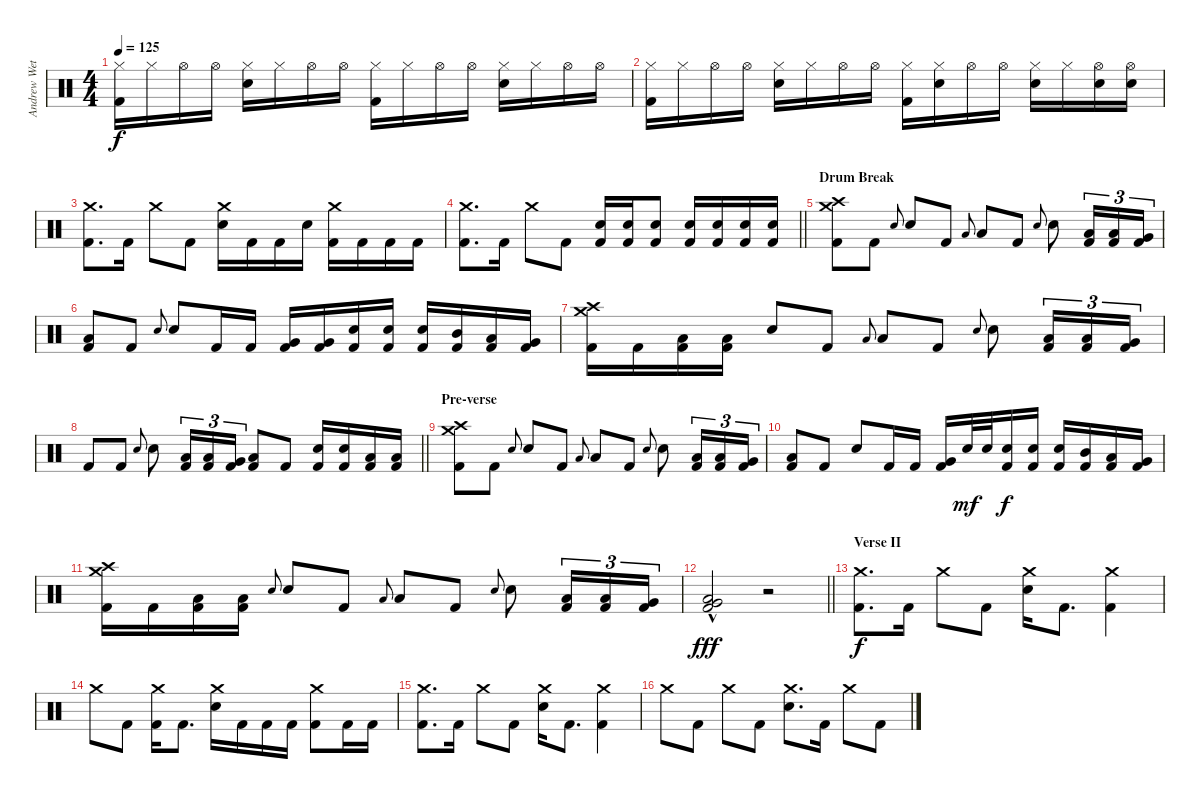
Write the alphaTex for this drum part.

\track ("Andrew Wetzel" "Andrew Wet") {instrument percussion}
\staff {score}
\articulation defaults
\ts (4 4)
\tempo 125
\clef neutral
\ks c
("Hi-Hat (closed)" "Kick (hit) 2").16{dy f} "Hi-Hat (closed)".16 "Hi-Hat (open)".16 "Hi-Hat (open)".16 ("Hi-Hat (closed)" "Snare (hit) 2").16 "Hi-Hat (closed)".16 "Hi-Hat (open)".16 "Hi-Hat (open)".16 ("Hi-Hat (closed)" "Kick (hit) 2").16 "Hi-Hat (closed)".16 "Hi-Hat (open)".16 "Hi-Hat (open)".16 ("Hi-Hat (closed)" "Snare (hit) 2").16 "Hi-Hat (closed)".16 "Hi-Hat (open)".16 "Hi-Hat (open)".16 |
("Hi-Hat (closed)" "Kick (hit) 2").16 "Hi-Hat (closed)".16 "Hi-Hat (open)".16 "Hi-Hat (open)".16 ("Hi-Hat (closed)" "Snare (hit) 2").16 "Hi-Hat (closed)".16 "Hi-Hat (open)".16 "Hi-Hat (open)".16 ("Hi-Hat (closed)" "Kick (hit) 2").16 ("Hi-Hat (closed)" "Snare (hit) 2").16 "Hi-Hat (open)".16 "Hi-Hat (open)".16 ("Hi-Hat (closed)" "Snare (hit) 2").16 "Hi-Hat (closed)".16 ("Hi-Hat (open)" "Snare (hit) 2").16 ("Hi-Hat (open)" "Snare (hit) 2").16 |
("Crash medium (hit)" "Kick (hit) 2").8{d} "Kick (hit) 2".16 "Crash medium (hit)".8 "Kick (hit) 2".8 ("Crash medium (hit)" "Snare (hit) 2").16 "Kick (hit) 2".16 "Kick (hit) 2".16 "Snare (hit) 2".16 ("Crash medium (hit)" "Kick (hit) 2").16 "Kick (hit) 2".16 "Kick (hit) 2".16 "Kick (hit) 2".16 |
\barLineRight lightlight
("Crash medium (hit)" "Kick (hit) 2").8{d} "Kick (hit) 2".16 "Crash medium (hit)".8 "Kick (hit) 2".8 ("Snare (hit) 2" "Kick (hit) 2").16 ("Snare (hit) 2" "Kick (hit) 2").16 ("Snare (hit) 2" "Kick (hit) 2").8 ("Snare (hit) 2" "Kick (hit) 2").16 ("Snare (hit) 2" "Kick (hit) 2").16 ("Snare (hit) 2" "Kick (hit) 2").16 ("Snare (hit) 2" "Kick (hit) 2").16 |
\section ("" "Drum Break")
("Crash medium (hit)" "Crash high (hit)" "Kick (hit) 2").8 "Kick (hit) 2".8 "Snare (hit) 2".8{gr onbeat} "Snare (hit) 2".8 "Kick (hit) 2".8 "Low Floor Tom (hit)".8{gr onbeat} "Low Floor Tom (hit)".8 "Kick (hit) 2".8 "Snare (hit) 2".8{gr onbeat} "Snare (hit) 2".8 ("Low Tom (hit)" "Kick (hit) 2").16{tu (3 2)} ("Low Tom (hit)" "Kick (hit) 2").16{tu (3 2)} ("Very Low Tom (hit)" "Kick (hit) 2").16{tu (3 2)} |
("Low Floor Tom (hit)" "Kick (hit) 2").8 "Kick (hit) 2".8 "Snare (hit) 2".8{gr onbeat} "Snare (hit) 2".8 "Kick (hit) 2".16 "Kick (hit) 2".16 ("Very Low Tom (hit)" "Kick (hit) 2").16 ("Very Low Tom (hit)" "Kick (hit) 2").16 ("Snare (hit) 2" "Kick (hit) 2").16 ("Snare (hit) 2" "Kick (hit) 2").16 ("Snare (hit) 2" "Kick (hit) 2").16 ("Mid Tom (hit)" "Kick (hit) 2").16 ("Low Tom (hit)" "Kick (hit) 2").16 ("Very Low Tom (hit)" "Kick (hit) 2").16 |
("Crash medium (hit)" "Crash high (hit)" "Kick (hit) 2").16 "Kick (hit) 2".16 ("Low Floor Tom (hit)" "Kick (hit) 2").16 ("Low Floor Tom (hit)" "Kick (hit) 2").16 "Snare (hit) 2".8 "Kick (hit) 2".8 "Low Floor Tom (hit)".8{gr onbeat} "Low Floor Tom (hit)".8 "Kick (hit) 2".8 "Snare (hit) 2".8{gr onbeat} "Snare (hit) 2".8 ("Low Tom (hit)" "Kick (hit) 2").16{tu (3 2)} ("Low Tom (hit)" "Kick (hit) 2").16{tu (3 2)} ("Very Low Tom (hit)" "Kick (hit) 2").16{tu (3 2)} |
\barLineRight lightlight "Kick (hit) 2".8 "Kick (hit) 2".8 "Snare (hit) 2".8{gr onbeat} "Snare (hit) 2".8
("Low Tom (hit)" "Kick (hit) 2").16{tu (3 2)} ("Low Tom (hit)" "Kick (hit) 2").16{tu (3 2)} ("Very Low Tom (hit)" "Kick (hit) 2").16{tu (3 2)} ("Low Floor Tom (hit)" "Kick (hit) 2").8 "Kick (hit) 2".8 ("Snare (hit) 2" "Kick (hit) 2").16 ("Snare (hit) 2" "Kick (hit) 2").16 ("Low Tom (hit)" "Kick (hit) 2").16 ("Low Tom (hit)" "Kick (hit) 2").16 |
\section ("" "Pre-verse")
("Crash medium (hit)" "Crash high (hit)" "Kick (hit) 2").8 "Kick (hit) 2".8 "Snare (hit) 2".8{gr onbeat} "Snare (hit) 2".8 "Kick (hit) 2".8 "Low Floor Tom (hit)".8{gr onbeat} "Low Floor Tom (hit)".8 "Kick (hit) 2".8 "Snare (hit) 2".8{gr onbeat} "Snare (hit) 2".8 ("Low Tom (hit)" "Kick (hit) 2").16{tu (3 2)} ("Low Tom (hit)" "Kick (hit) 2").16{tu (3 2)} ("Very Low Tom (hit)" "Kick (hit) 2").16{tu (3 2)} |
("Low Floor Tom (hit)" "Kick (hit) 2").8 "Kick (hit) 2".8 "Snare (hit) 2".8 "Kick (hit) 2".16 "Kick (hit) 2".16 ("Very Low Tom (hit)" "Kick (hit) 2").16 "Snare (hit) 2".32{dy mf} "Snare (hit) 2".32 ("Snare (hit) 2" "Kick (hit) 2").16{dy f} ("Snare (hit) 2" "Kick (hit) 2").16 ("Snare (hit) 2" "Kick (hit) 2").16 ("Mid Tom (hit)" "Kick (hit) 2").16 ("Low Tom (hit)" "Kick (hit) 2").16 ("Very Low Tom (hit)" "Kick (hit) 2").16 |
("Crash medium (hit)" "Crash high (hit)" "Kick (hit) 2").16 "Kick (hit) 2".16 ("Low Floor Tom (hit)" "Kick (hit) 2").16 ("Low Floor Tom (hit)" "Kick (hit) 2").16 "Snare (hit) 2".8{gr onbeat} "Snare (hit) 2".8 "Kick (hit) 2".8 "Low Floor Tom (hit)".8{gr onbeat} "Low Floor Tom (hit)".8 "Kick (hit) 2".8 "Snare (hit) 2".8{gr onbeat} "Snare (hit) 2".8 ("Low Tom (hit)" "Kick (hit) 2").16{tu (3 2)} ("Low Tom (hit)" "Kick (hit) 2").16{tu (3 2)} ("Very Low Tom (hit)" "Kick (hit) 2").16{tu (3 2)} |
\barLineRight lightlight
("Very Low Tom (hit)"{hac} "Low Floor Tom (hit)"{hac} "Kick (hit) 2"{hac}).2{dy fff} r.2 |
\section ("" "Verse II")
("Crash medium (hit)" "Kick (hit) 2").8{d dy f} "Kick (hit) 2".16 "Crash medium (hit)".8 "Kick (hit) 2".8 ("Crash medium (hit)" "Snare (hit) 2").16 "Kick (hit) 2".8{d} ("Crash medium (hit)" "Kick (hit) 2").4 |
"Crash medium (hit)".8 "Kick (hit) 2".8 ("Crash medium (hit)" "Kick (hit) 2").16 "Kick (hit) 2".8{d} ("Crash medium (hit)" "Snare (hit) 2").16 "Kick (hit) 2".16 "Kick (hit) 2".16 "Kick (hit) 2".16 ("Crash medium (hit)" "Kick (hit) 2").8 "Kick (hit) 2".16 "Kick (hit) 2".16 |
("Crash medium (hit)" "Kick (hit) 2").8{d} "Kick (hit) 2".16 "Crash medium (hit)".8 "Kick (hit) 2".8 ("Crash medium (hit)" "Snare (hit) 2").16 "Kick (hit) 2".8{d} ("Crash medium (hit)" "Kick (hit) 2").4 |
"Crash medium (hit)".8 "Kick (hit) 2".8 "Crash medium (hit)".8 "Kick (hit) 2".8 ("Crash medium (hit)" "Snare (hit) 2").8{d} "Kick (hit) 2".16 "Crash medium (hit)".8 "Kick (hit) 2".8
